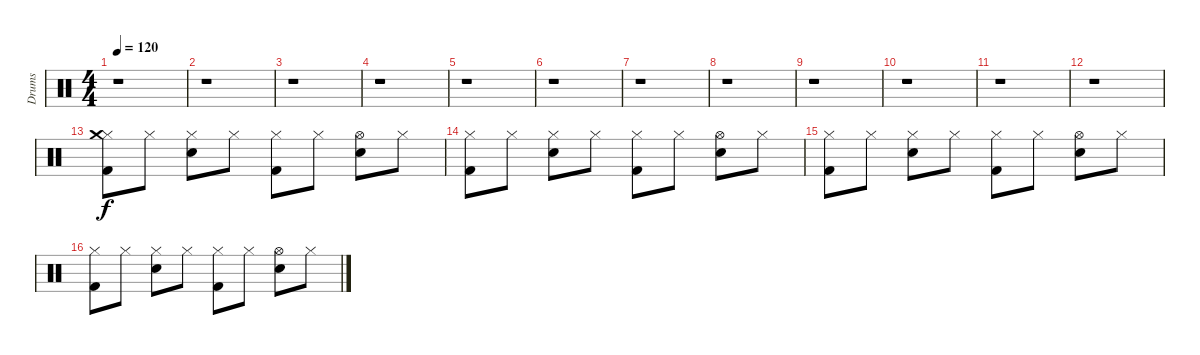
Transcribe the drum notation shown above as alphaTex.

\track ("Drums" "Drums") {instrument percussion}
\staff {score}
\articulation defaults
\ts (4 4)
\tempo 120
\clef neutral
\ks c
r.1{dy f} |
r.1 |
r.1 |
r.1 |
r.1 |
r.1 |
r.1 |
r.1 |
r.1 |
r.1 |
r.1 |
r.1 |
("Kick (hit) 2" "Hi-Hat (closed)" "Crash medium (hit)").8 "Hi-Hat (closed)".8 ("Snare (hit) 2" "Hi-Hat (closed)").8 "Hi-Hat (closed)".8 ("Kick (hit) 2" "Hi-Hat (closed)").8 "Hi-Hat (closed)".8 ("Snare (hit) 2" "Hi-Hat (open)").8 "Hi-Hat (closed)".8 |
("Kick (hit) 2" "Hi-Hat (closed)").8 "Hi-Hat (closed)".8 ("Snare (hit) 2" "Hi-Hat (closed)").8 "Hi-Hat (closed)".8 ("Kick (hit) 2" "Hi-Hat (closed)").8 "Hi-Hat (closed)".8 ("Snare (hit) 2" "Hi-Hat (open)").8 "Hi-Hat (closed)".8 |
("Kick (hit) 2" "Hi-Hat (closed)").8 "Hi-Hat (closed)".8 ("Snare (hit) 2" "Hi-Hat (closed)").8 "Hi-Hat (closed)".8 ("Kick (hit) 2" "Hi-Hat (closed)").8 "Hi-Hat (closed)".8 ("Snare (hit) 2" "Hi-Hat (open)").8 "Hi-Hat (closed)".8 |
("Kick (hit) 2" "Hi-Hat (closed)").8 "Hi-Hat (closed)".8 ("Snare (hit) 2" "Hi-Hat (closed)").8 "Hi-Hat (closed)".8 ("Kick (hit) 2" "Hi-Hat (closed)").8 "Hi-Hat (closed)".8 ("Snare (hit) 2" "Hi-Hat (open)").8 "Hi-Hat (closed)".8
